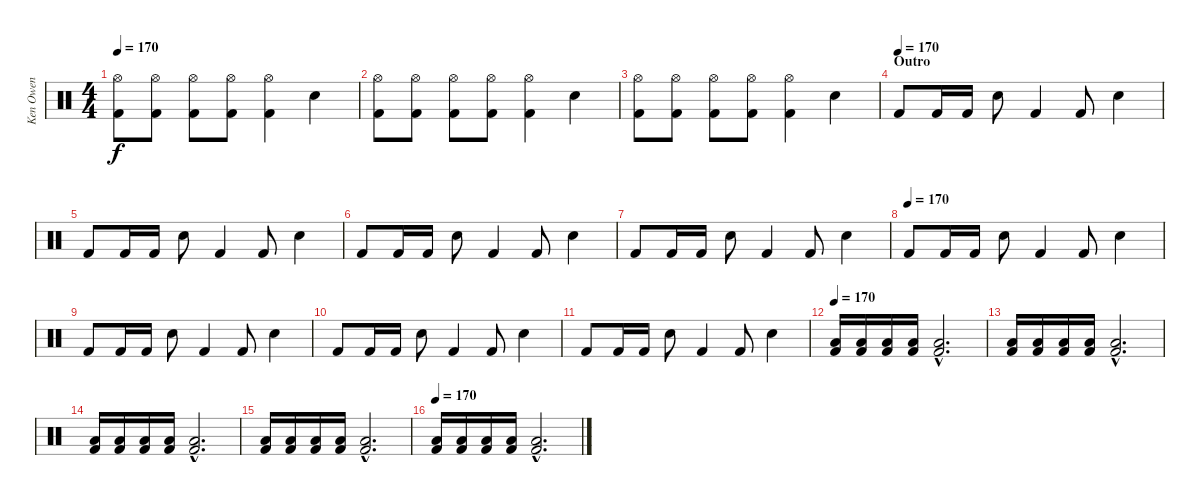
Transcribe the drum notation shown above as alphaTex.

\track ("Ken Owen" "Ken Owen") {instrument percussion}
\staff {score}
\articulation defaults
\ts (4 4)
\tempo 170
\clef neutral
\ks c
("Hi-Hat (open)" "Kick (hit) 2").8{dy f} ("Hi-Hat (open)" "Kick (hit) 2").8 ("Hi-Hat (open)" "Kick (hit) 2").8 ("Hi-Hat (open)" "Kick (hit) 2").8 ("Hi-Hat (open)" "Kick (hit) 2").4 "Electric Snare (hit)".4 |
("Hi-Hat (open)" "Kick (hit) 2").8 ("Hi-Hat (open)" "Kick (hit) 2").8 ("Hi-Hat (open)" "Kick (hit) 2").8 ("Hi-Hat (open)" "Kick (hit) 2").8 ("Hi-Hat (open)" "Kick (hit) 2").4 "Electric Snare (hit)".4 |
("Hi-Hat (open)" "Kick (hit) 2").8 ("Hi-Hat (open)" "Kick (hit) 2").8 ("Hi-Hat (open)" "Kick (hit) 2").8 ("Hi-Hat (open)" "Kick (hit) 2").8 ("Hi-Hat (open)" "Kick (hit) 2").4 "Electric Snare (hit)".4 |
\section ("" "Outro")
\tempo (170)
"Kick (hit) 2".8 "Kick (hit) 2".16 "Kick (hit) 2".16 "Electric Snare (hit)".8 "Kick (hit) 2".4 "Kick (hit) 2".8 "Electric Snare (hit)".4 |
"Kick (hit) 2".8 "Kick (hit) 2".16 "Kick (hit) 2".16 "Electric Snare (hit)".8 "Kick (hit) 2".4 "Kick (hit) 2".8 "Electric Snare (hit)".4 |
"Kick (hit) 2".8 "Kick (hit) 2".16 "Kick (hit) 2".16 "Electric Snare (hit)".8 "Kick (hit) 2".4 "Kick (hit) 2".8 "Electric Snare (hit)".4 |
"Kick (hit) 2".8 "Kick (hit) 2".16 "Kick (hit) 2".16 "Electric Snare (hit)".8 "Kick (hit) 2".4 "Kick (hit) 2".8 "Electric Snare (hit)".4 |
\tempo (170)
"Kick (hit) 2".8 "Kick (hit) 2".16 "Kick (hit) 2".16 "Electric Snare (hit)".8 "Kick (hit) 2".4 "Kick (hit) 2".8 "Electric Snare (hit)".4 |
"Kick (hit) 2".8 "Kick (hit) 2".16 "Kick (hit) 2".16 "Electric Snare (hit)".8 "Kick (hit) 2".4 "Kick (hit) 2".8 "Electric Snare (hit)".4 |
"Kick (hit) 2".8 "Kick (hit) 2".16 "Kick (hit) 2".16 "Electric Snare (hit)".8 "Kick (hit) 2".4 "Kick (hit) 2".8 "Electric Snare (hit)".4 |
"Kick (hit) 2".8 "Kick (hit) 2".16 "Kick (hit) 2".16 "Electric Snare (hit)".8 "Kick (hit) 2".4 "Kick (hit) 2".8 "Electric Snare (hit)".4 |
\tempo 170
("Low Floor Tom (hit)" "Kick (hit) 2").16 ("Low Floor Tom (hit)" "Kick (hit) 2").16 ("Low Floor Tom (hit)" "Kick (hit) 2").16 ("Low Floor Tom (hit)" "Kick (hit) 2").16 ("Low Floor Tom (hit)"{hac} "Kick (hit) 2"{hac}).2{d} |
("Low Floor Tom (hit)" "Kick (hit) 2").16 ("Low Floor Tom (hit)" "Kick (hit) 2").16 ("Low Floor Tom (hit)" "Kick (hit) 2").16 ("Low Floor Tom (hit)" "Kick (hit) 2").16 ("Low Floor Tom (hit)"{hac} "Kick (hit) 2"{hac}).2{d} |
("Low Floor Tom (hit)" "Kick (hit) 2").16 ("Low Floor Tom (hit)" "Kick (hit) 2").16 ("Low Floor Tom (hit)" "Kick (hit) 2").16 ("Low Floor Tom (hit)" "Kick (hit) 2").16 ("Low Floor Tom (hit)"{hac} "Kick (hit) 2"{hac}).2{d} |
("Low Floor Tom (hit)" "Kick (hit) 2").16 ("Low Floor Tom (hit)" "Kick (hit) 2").16 ("Low Floor Tom (hit)" "Kick (hit) 2").16 ("Low Floor Tom (hit)" "Kick (hit) 2").16 ("Low Floor Tom (hit)"{hac} "Kick (hit) 2"{hac}).2{d} |
\tempo 170
("Low Floor Tom (hit)" "Kick (hit) 2").16 ("Low Floor Tom (hit)" "Kick (hit) 2").16 ("Low Floor Tom (hit)" "Kick (hit) 2").16 ("Low Floor Tom (hit)" "Kick (hit) 2").16 ("Low Floor Tom (hit)"{hac} "Kick (hit) 2"{hac}).2{d}
